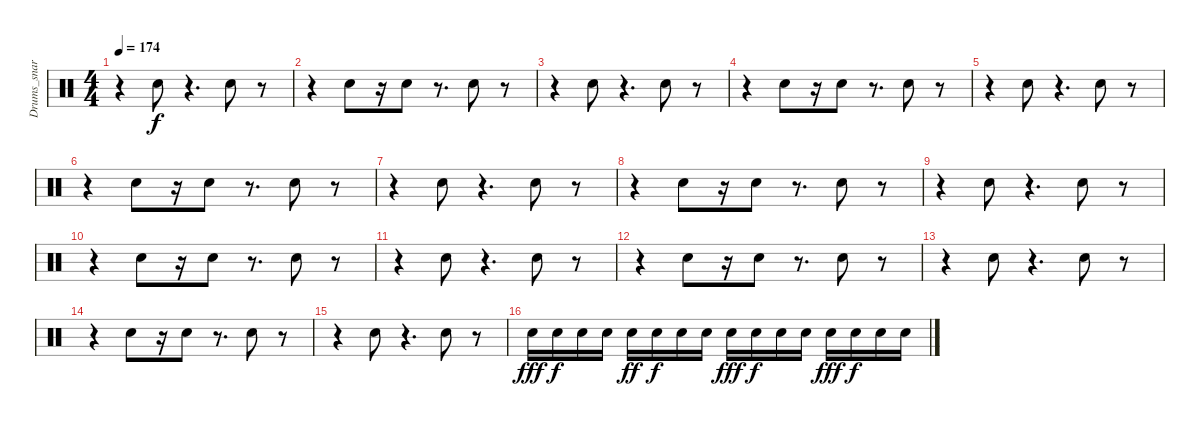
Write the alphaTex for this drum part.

\track ("Drums_snare&tom" "Drums_snar") {instrument percussion}
\staff {score}
\articulation defaults
\ts (4 4)
\tempo 174
\clef neutral
\ks c
r.4{dy f} "Electric Snare (hit)".8 r.4{d} "Electric Snare (hit)".8 r.8 |
r.4 "Electric Snare (hit)".8 r.16 "Electric Snare (hit)".8 r.8{d} "Electric Snare (hit)".8 r.8 |
r.4 "Electric Snare (hit)".8 r.4{d} "Electric Snare (hit)".8 r.8 |
r.4 "Electric Snare (hit)".8 r.16 "Electric Snare (hit)".8 r.8{d} "Electric Snare (hit)".8 r.8 |
r.4 "Electric Snare (hit)".8 r.4{d} "Electric Snare (hit)".8 r.8 |
r.4 "Electric Snare (hit)".8 r.16 "Electric Snare (hit)".8 r.8{d} "Electric Snare (hit)".8 r.8 |
r.4 "Electric Snare (hit)".8 r.4{d} "Electric Snare (hit)".8 r.8 |
r.4 "Electric Snare (hit)".8 r.16 "Electric Snare (hit)".8 r.8{d} "Electric Snare (hit)".8 r.8 |
r.4 "Electric Snare (hit)".8 r.4{d} "Electric Snare (hit)".8 r.8 |
r.4 "Electric Snare (hit)".8 r.16 "Electric Snare (hit)".8 r.8{d} "Electric Snare (hit)".8 r.8 |
r.4 "Electric Snare (hit)".8 r.4{d} "Electric Snare (hit)".8 r.8 |
r.4 "Electric Snare (hit)".8 r.16 "Electric Snare (hit)".8 r.8{d} "Electric Snare (hit)".8 r.8 |
r.4 "Electric Snare (hit)".8 r.4{d} "Electric Snare (hit)".8 r.8 |
r.4 "Electric Snare (hit)".8 r.16 "Electric Snare (hit)".8 r.8{d} "Electric Snare (hit)".8 r.8 |
r.4 "Electric Snare (hit)".8 r.4{d} "Electric Snare (hit)".8 r.8 |
"Electric Snare (hit)".16{dy fff} "Electric Snare (hit)".16{dy f} "Electric Snare (hit)".16 "Electric Snare (hit)".16 "Electric Snare (hit)".16{dy ff} "Electric Snare (hit)".16{dy f} "Electric Snare (hit)".16 "Electric Snare (hit)".16 "Electric Snare (hit)".16{dy fff} "Electric Snare (hit)".16{dy f} "Electric Snare (hit)".16 "Electric Snare (hit)".16 "Electric Snare (hit)".16{dy fff} "Electric Snare (hit)".16{dy f} "Electric Snare (hit)".16 "Electric Snare (hit)".16
